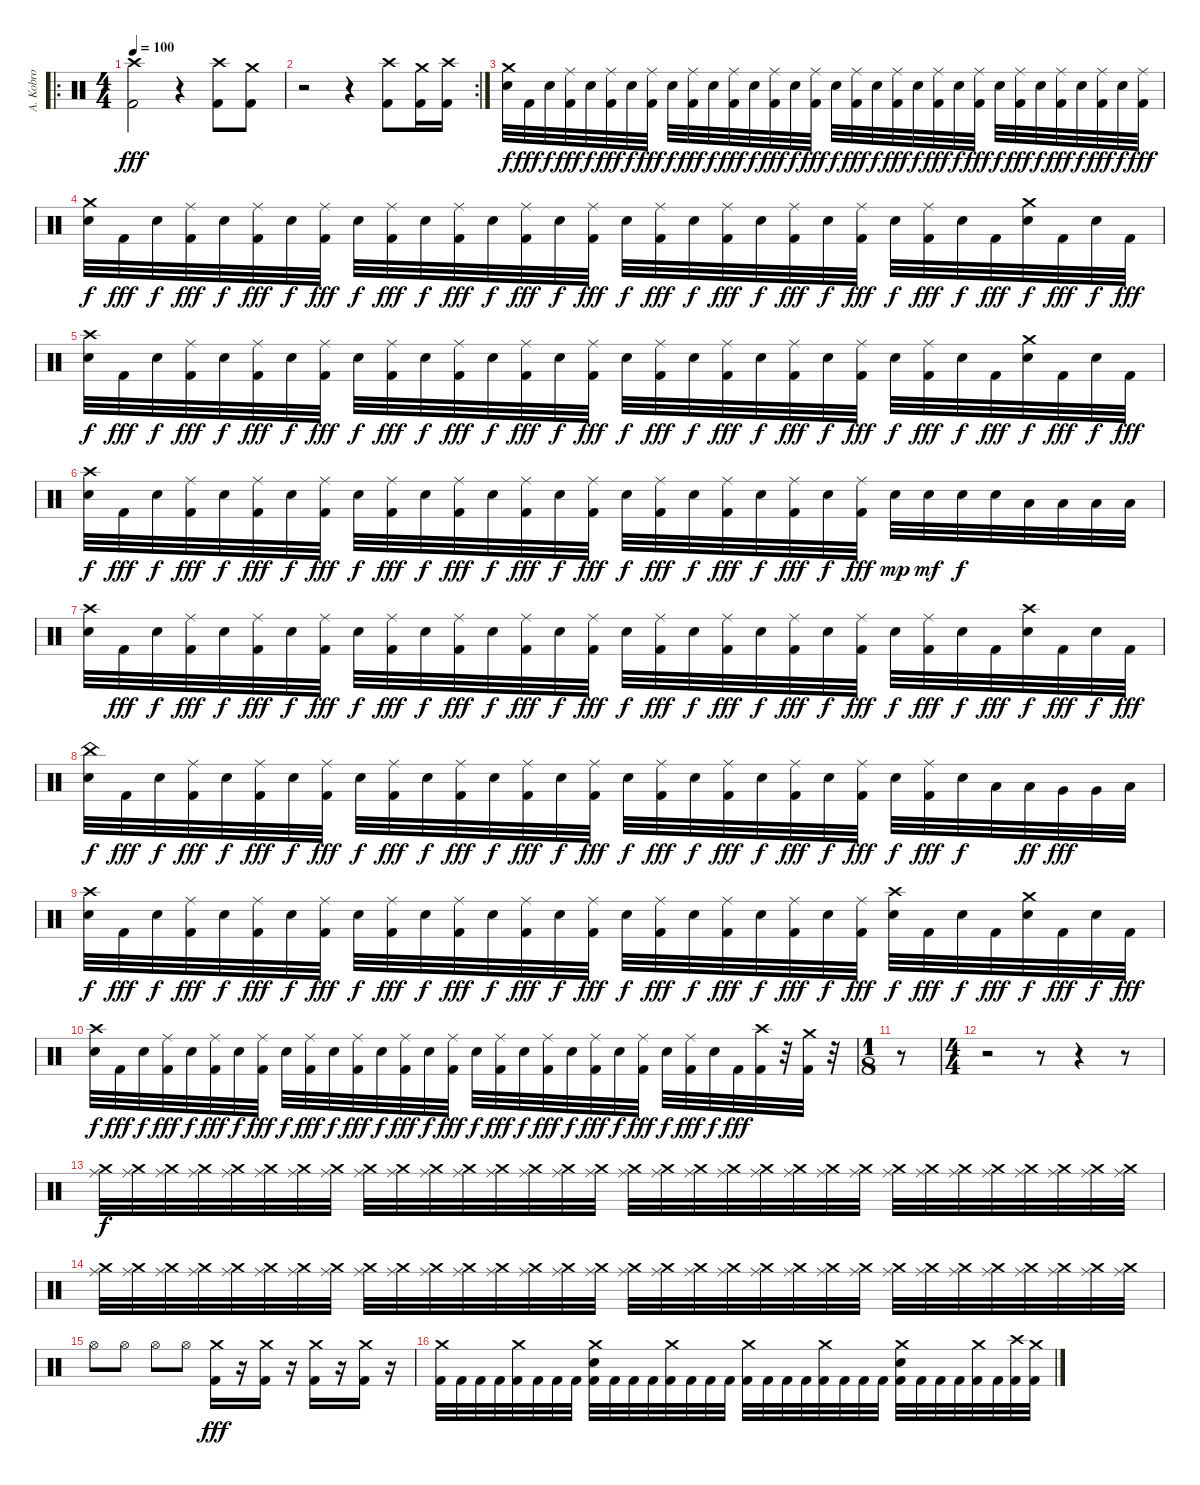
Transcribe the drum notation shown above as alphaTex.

\track ("A. Kobro" "A. Kobro") {instrument percussion}
\staff {score}
\articulation defaults
\ro
\ts (4 4)
\tempo 100
\clef neutral
\ks c
("Crash high (hit)" "Kick (hit) 2").2{dy fff volume 14} r.4 ("Crash high (hit)" "Kick (hit) 2").8 ("Crash medium (hit)" "Kick (hit) 2").8 |
\rc 2
r.2{volume 0} r.4{volume 14} ("Crash high (hit)" "Kick (hit) 2").8 ("Crash medium (hit)" "Kick (hit) 2").16 ("Crash high (hit)" "Kick (hit) 2").16 |
("Crash medium (hit)" "Electric Snare (hit)").32{dy f} "Kick (hit) 2".32{dy fff} "Electric Snare (hit)".32{dy f} ("Ride (middle)" "Kick (hit) 2").32{dy fff} "Electric Snare (hit)".32{dy f} ("Ride (middle)" "Kick (hit) 2").32{dy fff} "Electric Snare (hit)".32{dy f} ("Ride (middle)" "Kick (hit) 2").32{dy fff} "Electric Snare (hit)".32{dy f} ("Ride (middle)" "Kick (hit) 2").32{dy fff} "Electric Snare (hit)".32{dy f} ("Ride (middle)" "Kick (hit) 2").32{dy fff} "Electric Snare (hit)".32{dy f} ("Ride (middle)" "Kick (hit) 2").32{dy fff} "Electric Snare (hit)".32{dy f} ("Ride (middle)" "Kick (hit) 2").32{dy fff} "Electric Snare (hit)".32{dy f} ("Ride (middle)" "Kick (hit) 2").32{dy fff} "Electric Snare (hit)".32{dy f} ("Ride (middle)" "Kick (hit) 2").32{dy fff} "Electric Snare (hit)".32{dy f} ("Ride (middle)" "Kick (hit) 2").32{dy fff} "Electric Snare (hit)".32{dy f} ("Ride (middle)" "Kick (hit) 2").32{dy fff} "Electric Snare (hit)".32{dy f} ("Ride (middle)" "Kick (hit) 2").32{dy fff} "Electric Snare (hit)".32{dy f} ("Ride (middle)" "Kick (hit) 2").32{dy fff} "Electric Snare (hit)".32{dy f} ("Ride (middle)" "Kick (hit) 2").32{dy fff} "Electric Snare (hit)".32{dy f} ("Ride (middle)" "Kick (hit) 2").32{dy fff} |
("Crash medium (hit)" "Electric Snare (hit)").32{dy f} "Kick (hit) 2".32{dy fff} "Electric Snare (hit)".32{dy f} ("Ride (middle)" "Kick (hit) 2").32{dy fff} "Electric Snare (hit)".32{dy f} ("Ride (middle)" "Kick (hit) 2").32{dy fff} "Electric Snare (hit)".32{dy f} ("Ride (middle)" "Kick (hit) 2").32{dy fff} "Electric Snare (hit)".32{dy f} ("Ride (middle)" "Kick (hit) 2").32{dy fff} "Electric Snare (hit)".32{dy f} ("Ride (middle)" "Kick (hit) 2").32{dy fff} "Electric Snare (hit)".32{dy f} ("Ride (middle)" "Kick (hit) 2").32{dy fff} "Electric Snare (hit)".32{dy f} ("Ride (middle)" "Kick (hit) 2").32{dy fff} "Electric Snare (hit)".32{dy f} ("Ride (middle)" "Kick (hit) 2").32{dy fff} "Electric Snare (hit)".32{dy f} ("Ride (middle)" "Kick (hit) 2").32{dy fff} "Electric Snare (hit)".32{dy f} ("Ride (middle)" "Kick (hit) 2").32{dy fff} "Electric Snare (hit)".32{dy f} ("Ride (middle)" "Kick (hit) 2").32{dy fff} "Electric Snare (hit)".32{dy f} ("Ride (middle)" "Kick (hit) 2").32{dy fff} "Electric Snare (hit)".32{dy f} "Kick (hit) 2".32{dy fff} ("Crash medium (hit)" "Electric Snare (hit)").32{dy f} "Kick (hit) 2".32{dy fff} "Electric Snare (hit)".32{dy f} "Kick (hit) 2".32{dy fff} |
("Crash high (hit)" "Electric Snare (hit)").32{dy f} "Kick (hit) 2".32{dy fff} "Electric Snare (hit)".32{dy f} ("Ride (middle)" "Kick (hit) 2").32{dy fff} "Electric Snare (hit)".32{dy f} ("Ride (middle)" "Kick (hit) 2").32{dy fff} "Electric Snare (hit)".32{dy f} ("Ride (middle)" "Kick (hit) 2").32{dy fff} "Electric Snare (hit)".32{dy f} ("Ride (middle)" "Kick (hit) 2").32{dy fff} "Electric Snare (hit)".32{dy f} ("Ride (middle)" "Kick (hit) 2").32{dy fff} "Electric Snare (hit)".32{dy f} ("Ride (middle)" "Kick (hit) 2").32{dy fff} "Electric Snare (hit)".32{dy f} ("Ride (middle)" "Kick (hit) 2").32{dy fff} "Electric Snare (hit)".32{dy f} ("Ride (middle)" "Kick (hit) 2").32{dy fff} "Electric Snare (hit)".32{dy f} ("Ride (middle)" "Kick (hit) 2").32{dy fff} "Electric Snare (hit)".32{dy f} ("Ride (middle)" "Kick (hit) 2").32{dy fff} "Electric Snare (hit)".32{dy f} ("Ride (middle)" "Kick (hit) 2").32{dy fff} "Electric Snare (hit)".32{dy f} ("Ride (middle)" "Kick (hit) 2").32{dy fff} "Electric Snare (hit)".32{dy f} "Kick (hit) 2".32{dy fff} ("Crash medium (hit)" "Electric Snare (hit)").32{dy f} "Kick (hit) 2".32{dy fff} "Electric Snare (hit)".32{dy f} "Kick (hit) 2".32{dy fff} |
("Crash high (hit)" "Electric Snare (hit)").32{dy f} "Kick (hit) 2".32{dy fff} "Electric Snare (hit)".32{dy f} ("Ride (middle)" "Kick (hit) 2").32{dy fff} "Electric Snare (hit)".32{dy f} ("Ride (middle)" "Kick (hit) 2").32{dy fff} "Electric Snare (hit)".32{dy f} ("Ride (middle)" "Kick (hit) 2").32{dy fff} "Electric Snare (hit)".32{dy f} ("Ride (middle)" "Kick (hit) 2").32{dy fff} "Electric Snare (hit)".32{dy f} ("Ride (middle)" "Kick (hit) 2").32{dy fff} "Electric Snare (hit)".32{dy f} ("Ride (middle)" "Kick (hit) 2").32{dy fff} "Electric Snare (hit)".32{dy f} ("Ride (middle)" "Kick (hit) 2").32{dy fff} "Electric Snare (hit)".32{dy f} ("Ride (middle)" "Kick (hit) 2").32{dy fff} "Electric Snare (hit)".32{dy f} ("Ride (middle)" "Kick (hit) 2").32{dy fff} "Electric Snare (hit)".32{dy f} ("Ride (middle)" "Kick (hit) 2").32{dy fff} "Electric Snare (hit)".32{dy f} ("Ride (middle)" "Kick (hit) 2").32{dy fff} "Electric Snare (hit)".32{dy mp} "Electric Snare (hit)".32{dy mf} "Electric Snare (hit)".32{dy f} "Electric Snare (hit)".32 "Low Tom (hit)".32 "Low Tom (hit)".32 "Low Tom (hit)".32 "Low Floor Tom (hit)".32 |
("Crash high (hit)" "Electric Snare (hit)").32 "Kick (hit) 2".32{dy fff} "Electric Snare (hit)".32{dy f} ("Ride (middle)" "Kick (hit) 2").32{dy fff} "Electric Snare (hit)".32{dy f} ("Ride (middle)" "Kick (hit) 2").32{dy fff} "Electric Snare (hit)".32{dy f} ("Ride (middle)" "Kick (hit) 2").32{dy fff} "Electric Snare (hit)".32{dy f} ("Ride (middle)" "Kick (hit) 2").32{dy fff} "Electric Snare (hit)".32{dy f} ("Ride (middle)" "Kick (hit) 2").32{dy fff} "Electric Snare (hit)".32{dy f} ("Ride (middle)" "Kick (hit) 2").32{dy fff} "Electric Snare (hit)".32{dy f} ("Ride (middle)" "Kick (hit) 2").32{dy fff} "Electric Snare (hit)".32{dy f} ("Ride (middle)" "Kick (hit) 2").32{dy fff} "Electric Snare (hit)".32{dy f} ("Ride (middle)" "Kick (hit) 2").32{dy fff} "Electric Snare (hit)".32{dy f} ("Ride (middle)" "Kick (hit) 2").32{dy fff} "Electric Snare (hit)".32{dy f} ("Ride (middle)" "Kick (hit) 2").32{dy fff} "Electric Snare (hit)".32{dy f} ("Ride (middle)" "Kick (hit) 2").32{dy fff} "Electric Snare (hit)".32{dy f} "Kick (hit) 2".32{dy fff} ("Crash high (hit)" "Electric Snare (hit)").32{dy f} "Kick (hit) 2".32{dy fff} "Electric Snare (hit)".32{dy f} "Kick (hit) 2".32{dy fff} |
("China (hit)" "Electric Snare (hit)").32{dy f} "Kick (hit) 2".32{dy fff} "Electric Snare (hit)".32{dy f} ("Ride (middle)" "Kick (hit) 2").32{dy fff} "Electric Snare (hit)".32{dy f} ("Ride (middle)" "Kick (hit) 2").32{dy fff} "Electric Snare (hit)".32{dy f} ("Ride (middle)" "Kick (hit) 2").32{dy fff} "Electric Snare (hit)".32{dy f} ("Ride (middle)" "Kick (hit) 2").32{dy fff} "Electric Snare (hit)".32{dy f} ("Ride (middle)" "Kick (hit) 2").32{dy fff} "Electric Snare (hit)".32{dy f} ("Ride (middle)" "Kick (hit) 2").32{dy fff} "Electric Snare (hit)".32{dy f} ("Ride (middle)" "Kick (hit) 2").32{dy fff} "Electric Snare (hit)".32{dy f} ("Ride (middle)" "Kick (hit) 2").32{dy fff} "Electric Snare (hit)".32{dy f} ("Ride (middle)" "Kick (hit) 2").32{dy fff} "Electric Snare (hit)".32{dy f} ("Ride (middle)" "Kick (hit) 2").32{dy fff} "Electric Snare (hit)".32{dy f} ("Ride (middle)" "Kick (hit) 2").32{dy fff} "Electric Snare (hit)".32{dy f} ("Ride (middle)" "Kick (hit) 2").32{dy fff} "Electric Snare (hit)".32{dy f} "Low Tom (hit)".32 "Low Tom (hit)".32{dy ff} "Very Low Tom (hit)".32{dy fff} "Very Low Tom (hit)".32 "Low Floor Tom (hit)".32 |
("Crash high (hit)" "Electric Snare (hit)").32{dy f} "Kick (hit) 2".32{dy fff} "Electric Snare (hit)".32{dy f} ("Ride (middle)" "Kick (hit) 2").32{dy fff} "Electric Snare (hit)".32{dy f} ("Ride (middle)" "Kick (hit) 2").32{dy fff} "Electric Snare (hit)".32{dy f} ("Ride (middle)" "Kick (hit) 2").32{dy fff} "Electric Snare (hit)".32{dy f} ("Ride (middle)" "Kick (hit) 2").32{dy fff} "Electric Snare (hit)".32{dy f} ("Ride (middle)" "Kick (hit) 2").32{dy fff} "Electric Snare (hit)".32{dy f} ("Ride (middle)" "Kick (hit) 2").32{dy fff} "Electric Snare (hit)".32{dy f} ("Ride (middle)" "Kick (hit) 2").32{dy fff} "Electric Snare (hit)".32{dy f} ("Ride (middle)" "Kick (hit) 2").32{dy fff} "Electric Snare (hit)".32{dy f} ("Ride (middle)" "Kick (hit) 2").32{dy fff} "Electric Snare (hit)".32{dy f} ("Ride (middle)" "Kick (hit) 2").32{dy fff} "Electric Snare (hit)".32{dy f} ("Ride (middle)" "Kick (hit) 2").32{dy fff} ("Crash high (hit)" "Electric Snare (hit)").32{dy f} "Kick (hit) 2".32{dy fff} "Electric Snare (hit)".32{dy f} "Kick (hit) 2".32{dy fff} ("Crash medium (hit)" "Electric Snare (hit)").32{dy f} "Kick (hit) 2".32{dy fff} "Electric Snare (hit)".32{dy f} "Kick (hit) 2".32{dy fff} |
("Crash high (hit)" "Electric Snare (hit)").32{dy f} "Kick (hit) 2".32{dy fff} "Electric Snare (hit)".32{dy f} ("Ride (middle)" "Kick (hit) 2").32{dy fff} "Electric Snare (hit)".32{dy f} ("Ride (middle)" "Kick (hit) 2").32{dy fff} "Electric Snare (hit)".32{dy f} ("Ride (middle)" "Kick (hit) 2").32{dy fff} "Electric Snare (hit)".32{dy f} ("Ride (middle)" "Kick (hit) 2").32{dy fff} "Electric Snare (hit)".32{dy f} ("Ride (middle)" "Kick (hit) 2").32{dy fff} "Electric Snare (hit)".32{dy f} ("Ride (middle)" "Kick (hit) 2").32{dy fff} "Electric Snare (hit)".32{dy f} ("Ride (middle)" "Kick (hit) 2").32{dy fff} "Electric Snare (hit)".32{dy f} ("Ride (middle)" "Kick (hit) 2").32{dy fff} "Electric Snare (hit)".32{dy f} ("Ride (middle)" "Kick (hit) 2").32{dy fff} "Electric Snare (hit)".32{dy f} ("Ride (middle)" "Kick (hit) 2").32{dy fff} "Electric Snare (hit)".32{dy f} ("Ride (middle)" "Kick (hit) 2").32{dy fff} "Electric Snare (hit)".32{dy f} ("Ride (middle)" "Kick (hit) 2").32{dy fff} "Electric Snare (hit)".32{dy f} "Kick (hit) 2".32{dy fff} ("Crash high (hit)" "Kick (hit) 2").32 r.32 ("Crash medium (hit)" "Kick (hit) 2").32 r.32 |
\ts (1 8)
r.8 |
\ts (4 4)
r.2 r.8 r.4 r.8{volume 0} |
("Crash medium (hit)" "Ride (middle)").32{dy f volume 12} ("Crash medium (hit)" "Ride (middle)").32 ("Crash medium (hit)" "Ride (middle)").32 ("Crash medium (hit)" "Ride (middle)").32 ("Crash medium (hit)" "Ride (middle)").32 ("Crash medium (hit)" "Ride (middle)").32 ("Crash medium (hit)" "Ride (middle)").32 ("Crash medium (hit)" "Ride (middle)").32 ("Crash medium (hit)" "Ride (middle)").32 ("Crash medium (hit)" "Ride (middle)").32 ("Crash medium (hit)" "Ride (middle)").32 ("Crash medium (hit)" "Ride (middle)").32 ("Crash medium (hit)" "Ride (middle)").32 ("Crash medium (hit)" "Ride (middle)").32 ("Crash medium (hit)" "Ride (middle)").32 ("Crash medium (hit)" "Ride (middle)").32 ("Crash medium (hit)" "Ride (middle)").32 ("Crash medium (hit)" "Ride (middle)").32 ("Crash medium (hit)" "Ride (middle)").32 ("Crash medium (hit)" "Ride (middle)").32 ("Crash medium (hit)" "Ride (middle)").32 ("Crash medium (hit)" "Ride (middle)").32 ("Crash medium (hit)" "Ride (middle)").32 ("Crash medium (hit)" "Ride (middle)").32 ("Crash medium (hit)" "Ride (middle)").32 ("Crash medium (hit)" "Ride (middle)").32 ("Crash medium (hit)" "Ride (middle)").32 ("Crash medium (hit)" "Ride (middle)").32 ("Crash medium (hit)" "Ride (middle)").32 ("Crash medium (hit)" "Ride (middle)").32 ("Crash medium (hit)" "Ride (middle)").32 ("Crash medium (hit)" "Ride (middle)").32 |
("Crash medium (hit)" "Ride (middle)").32 ("Crash medium (hit)" "Ride (middle)").32 ("Crash medium (hit)" "Ride (middle)").32 ("Crash medium (hit)" "Ride (middle)").32 ("Crash medium (hit)" "Ride (middle)").32 ("Crash medium (hit)" "Ride (middle)").32 ("Crash medium (hit)" "Ride (middle)").32 ("Crash medium (hit)" "Ride (middle)").32 ("Crash medium (hit)" "Ride (middle)").32 ("Crash medium (hit)" "Ride (middle)").32 ("Crash medium (hit)" "Ride (middle)").32 ("Crash medium (hit)" "Ride (middle)").32 ("Crash medium (hit)" "Ride (middle)").32 ("Crash medium (hit)" "Ride (middle)").32 ("Crash medium (hit)" "Ride (middle)").32 ("Crash medium (hit)" "Ride (middle)").32 ("Crash medium (hit)" "Ride (middle)").32 ("Crash medium (hit)" "Ride (middle)").32 ("Crash medium (hit)" "Ride (middle)").32 ("Crash medium (hit)" "Ride (middle)").32 ("Crash medium (hit)" "Ride (middle)").32 ("Crash medium (hit)" "Ride (middle)").32 ("Crash medium (hit)" "Ride (middle)").32 ("Crash medium (hit)" "Ride (middle)").32 ("Crash medium (hit)" "Ride (middle)").32 ("Crash medium (hit)" "Ride (middle)").32 ("Crash medium (hit)" "Ride (middle)").32 ("Crash medium (hit)" "Ride (middle)").32 ("Crash medium (hit)" "Ride (middle)").32 ("Crash medium (hit)" "Ride (middle)").32 ("Crash medium (hit)" "Ride (middle)").32 ("Crash medium (hit)" "Ride (middle)").32 |
"Hi-Hat (open)".8{volume 14} "Hi-Hat (open)".8 "Hi-Hat (open)".8 "Hi-Hat (open)".8 ("Crash medium (hit)" "Kick (hit) 2").16{dy fff} r.16{volume 0} ("Crash medium (hit)" "Kick (hit) 2").16{volume 14} r.16{volume 0} ("Crash medium (hit)" "Kick (hit) 2").16{volume 14} r.16{volume 0} ("Crash medium (hit)" "Kick (hit) 2").16{volume 14} r.16{volume 0} |
("Crash medium (hit)" "Kick (hit) 2").32{volume 14} "Kick (hit) 2".32 "Kick (hit) 2".32 "Kick (hit) 2".32 ("Crash medium (hit)" "Kick (hit) 2").32 "Kick (hit) 2".32 "Kick (hit) 2".32 "Kick (hit) 2".32 ("Crash medium (hit)" "Electric Snare (hit)" "Kick (hit) 2").32 "Kick (hit) 2".32 "Kick (hit) 2".32 "Kick (hit) 2".32 ("Crash medium (hit)" "Kick (hit) 2").32 "Kick (hit) 2".32 "Kick (hit) 2".32 "Kick (hit) 2".32 ("Crash medium (hit)" "Kick (hit) 2").32 "Kick (hit) 2".32 "Kick (hit) 2".32 "Kick (hit) 2".32 ("Crash medium (hit)" "Kick (hit) 2").32 "Kick (hit) 2".32 "Kick (hit) 2".32 "Kick (hit) 2".32 ("Crash medium (hit)" "Electric Snare (hit)" "Kick (hit) 2").32 "Kick (hit) 2".32 "Kick (hit) 2".32 "Kick (hit) 2".32 ("Crash medium (hit)" "Kick (hit) 2").32 "Kick (hit) 2".32 ("Crash high (hit)" "Kick (hit) 2").32 ("Crash medium (hit)" "Kick (hit) 2").32
